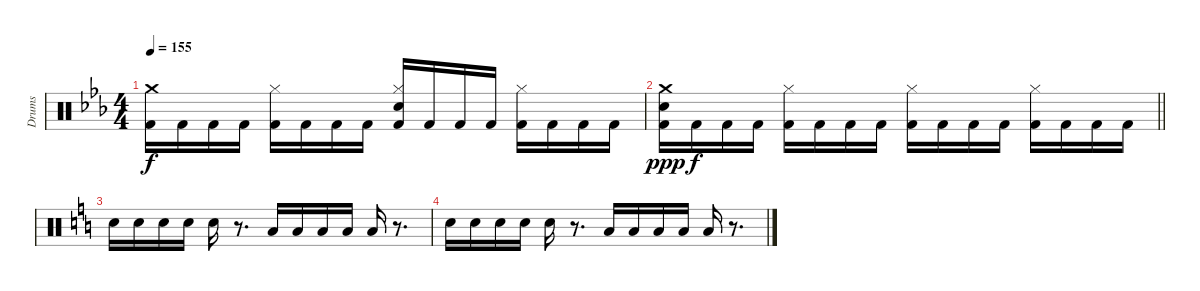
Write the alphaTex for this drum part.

\track ("Drums" "Drums") {instrument percussion}
\staff {score}
\articulation defaults
\ts (4 4)
\tempo 155
\clef neutral
\ks cminor
("Crash medium (hit)" "Kick (hit) 2").16{dy f} "Kick (hit) 2".16 "Kick (hit) 2".16 "Kick (hit) 2".16 ("Hi-Hat (closed)" "Kick (hit) 2").16 "Kick (hit) 2".16 "Kick (hit) 2".16 "Kick (hit) 2".16 ("Hi-Hat (closed)" "Kick (hit) 2" "Electric Snare (hit)").16 "Kick (hit) 2".16 "Kick (hit) 2".16 "Kick (hit) 2".16 ("Hi-Hat (closed)" "Kick (hit) 2").16 "Kick (hit) 2".16 "Kick (hit) 2".16 "Kick (hit) 2".16 |
\barLineRight lightlight
("Crash medium (hit)" "Kick (hit) 2" "Electric Snare (hit)").16{dy ppp} "Kick (hit) 2".16{dy f} "Kick (hit) 2".16 "Kick (hit) 2".16 ("Hi-Hat (closed)" "Kick (hit) 2").16 "Kick (hit) 2".16 "Kick (hit) 2".16 "Kick (hit) 2".16 ("Hi-Hat (closed)" "Kick (hit) 2").16 "Kick (hit) 2".16 "Kick (hit) 2".16 "Kick (hit) 2".16 ("Hi-Hat (closed)" "Kick (hit) 2").16 "Kick (hit) 2".16 "Kick (hit) 2".16 "Kick (hit) 2".16 |
\ks aminor "Electric Snare (hit)".16 "Electric Snare (hit)".16 "Electric Snare (hit)".16 "Electric Snare (hit)".16 "Electric Snare (hit)".16
r.8{d} "Low Tom (hit)".16 "Low Tom (hit)".16 "Low Tom (hit)".16 "Low Tom (hit)".16 "Low Tom (hit)".16 r.8{d} |
"Electric Snare (hit)".16 "Electric Snare (hit)".16 "Electric Snare (hit)".16 "Electric Snare (hit)".16 "Electric Snare (hit)".16 r.8{d} "Low Tom (hit)".16 "Low Tom (hit)".16 "Low Tom (hit)".16 "Low Tom (hit)".16 "Low Tom (hit)".16 r.8{d}
